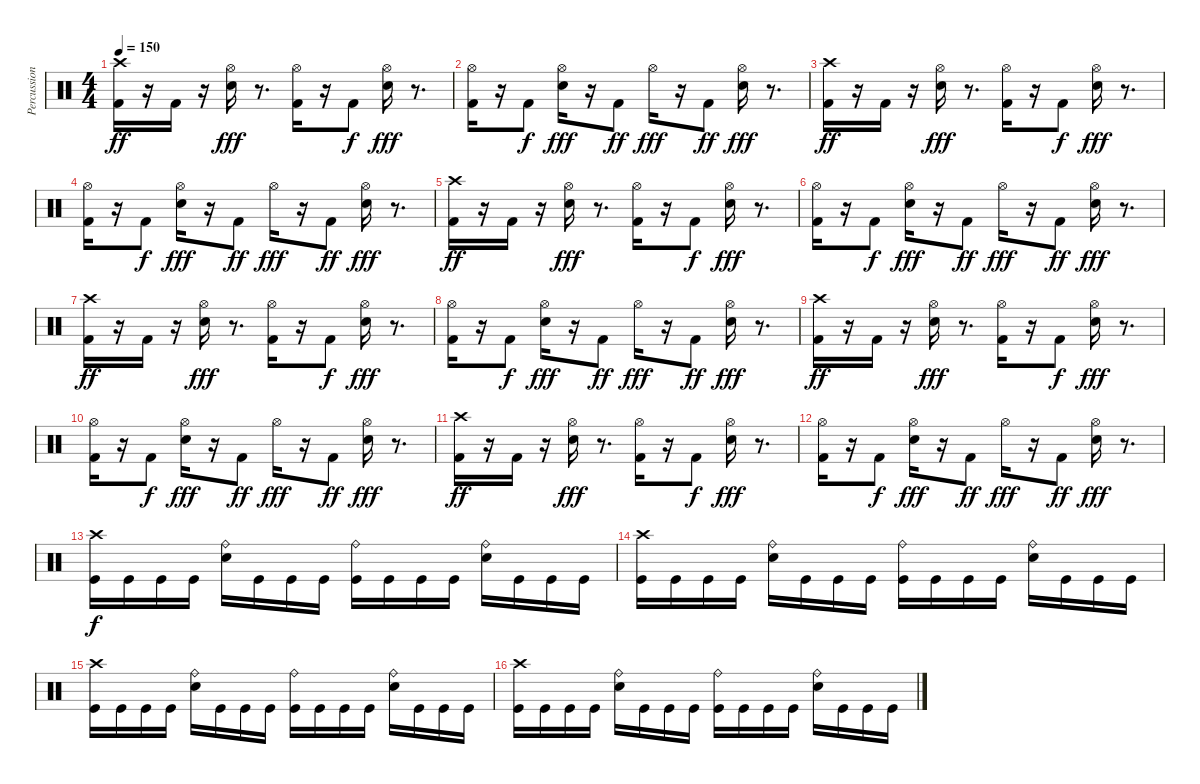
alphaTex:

\track ("Percussions" "Percussion") {instrument percussion}
\staff {score}
\articulation defaults
\ts (4 4)
\tempo 150
\clef neutral
\ks c
("Crash high (hit)" "Kick (hit) 2").16{dy ff} r.16 "Kick (hit) 2".16 r.16 ("Hi-Hat (open)" "Snare (hit) 2").16{dy fff} r.8{d} ("Kick (hit) 2" "Hi-Hat (open)").16 r.16 "Kick (hit) 2".8{dy f} ("Snare (hit) 2" "Hi-Hat (open)").16{dy fff} r.8{d} |
("Kick (hit) 2" "Hi-Hat (open)").16 r.16 "Kick (hit) 2".8{dy f} ("Snare (hit) 2" "Hi-Hat (open)").16{dy fff} r.16 "Kick (hit) 2".8{dy ff} "Hi-Hat (open)".16{dy fff} r.16 "Kick (hit) 2".8{dy ff} ("Snare (hit) 2" "Hi-Hat (open)").16{dy fff} r.8{d} |
("Crash high (hit)" "Kick (hit) 2").16{dy ff} r.16 "Kick (hit) 2".16 r.16 ("Hi-Hat (open)" "Snare (hit) 2").16{dy fff} r.8{d} ("Kick (hit) 2" "Hi-Hat (open)").16 r.16 "Kick (hit) 2".8{dy f} ("Snare (hit) 2" "Hi-Hat (open)").16{dy fff} r.8{d} |
("Kick (hit) 2" "Hi-Hat (open)").16 r.16 "Kick (hit) 2".8{dy f} ("Snare (hit) 2" "Hi-Hat (open)").16{dy fff} r.16 "Kick (hit) 2".8{dy ff} "Hi-Hat (open)".16{dy fff} r.16 "Kick (hit) 2".8{dy ff} ("Snare (hit) 2" "Hi-Hat (open)").16{dy fff} r.8{d} |
("Crash high (hit)" "Kick (hit) 2").16{dy ff} r.16 "Kick (hit) 2".16 r.16 ("Hi-Hat (open)" "Snare (hit) 2").16{dy fff} r.8{d} ("Kick (hit) 2" "Hi-Hat (open)").16 r.16 "Kick (hit) 2".8{dy f} ("Snare (hit) 2" "Hi-Hat (open)").16{dy fff} r.8{d} |
("Kick (hit) 2" "Hi-Hat (open)").16 r.16 "Kick (hit) 2".8{dy f} ("Snare (hit) 2" "Hi-Hat (open)").16{dy fff} r.16 "Kick (hit) 2".8{dy ff} "Hi-Hat (open)".16{dy fff} r.16 "Kick (hit) 2".8{dy ff} ("Snare (hit) 2" "Hi-Hat (open)").16{dy fff} r.8{d} |
("Crash high (hit)" "Kick (hit) 2").16{dy ff} r.16 "Kick (hit) 2".16 r.16 ("Hi-Hat (open)" "Snare (hit) 2").16{dy fff} r.8{d} ("Kick (hit) 2" "Hi-Hat (open)").16 r.16 "Kick (hit) 2".8{dy f} ("Snare (hit) 2" "Hi-Hat (open)").16{dy fff} r.8{d} |
("Kick (hit) 2" "Hi-Hat (open)").16 r.16 "Kick (hit) 2".8{dy f} ("Snare (hit) 2" "Hi-Hat (open)").16{dy fff} r.16 "Kick (hit) 2".8{dy ff} "Hi-Hat (open)".16{dy fff} r.16 "Kick (hit) 2".8{dy ff} ("Snare (hit) 2" "Hi-Hat (open)").16{dy fff} r.8{d} |
("Crash high (hit)" "Kick (hit) 2").16{dy ff} r.16 "Kick (hit) 2".16 r.16 ("Hi-Hat (open)" "Snare (hit) 2").16{dy fff} r.8{d} ("Kick (hit) 2" "Hi-Hat (open)").16 r.16 "Kick (hit) 2".8{dy f} ("Snare (hit) 2" "Hi-Hat (open)").16{dy fff} r.8{d} |
("Kick (hit) 2" "Hi-Hat (open)").16 r.16 "Kick (hit) 2".8{dy f} ("Snare (hit) 2" "Hi-Hat (open)").16{dy fff} r.16 "Kick (hit) 2".8{dy ff} "Hi-Hat (open)".16{dy fff} r.16 "Kick (hit) 2".8{dy ff} ("Snare (hit) 2" "Hi-Hat (open)").16{dy fff} r.8{d} |
("Crash high (hit)" "Kick (hit) 2").16{dy ff} r.16 "Kick (hit) 2".16 r.16 ("Hi-Hat (open)" "Snare (hit) 2").16{dy fff} r.8{d} ("Kick (hit) 2" "Hi-Hat (open)").16 r.16 "Kick (hit) 2".8{dy f} ("Snare (hit) 2" "Hi-Hat (open)").16{dy fff} r.8{d} |
("Kick (hit) 2" "Hi-Hat (open)").16 r.16 "Kick (hit) 2".8{dy f} ("Snare (hit) 2" "Hi-Hat (open)").16{dy fff} r.16 "Kick (hit) 2".8{dy ff} "Hi-Hat (open)".16{dy fff} r.16 "Kick (hit) 2".8{dy ff} ("Snare (hit) 2" "Hi-Hat (open)").16{dy fff} r.8{d} |
("Kick (hit)" "Crash high (hit)").16{dy f} "Kick (hit)".16 "Kick (hit)".16 "Kick (hit)".16 ("Electric Snare (hit)" "Ride (bell)").16 "Kick (hit)".16 "Kick (hit)".16 "Kick (hit)".16 ("Kick (hit)" "Ride (bell)").16 "Kick (hit)".16 "Kick (hit)".16 "Kick (hit)".16 ("Electric Snare (hit)" "Ride (bell)").16 "Kick (hit)".16 "Kick (hit)".16 "Kick (hit)".16 |
("Kick (hit)" "Crash high (hit)").16 "Kick (hit)".16 "Kick (hit)".16 "Kick (hit)".16 ("Electric Snare (hit)" "Ride (bell)").16 "Kick (hit)".16 "Kick (hit)".16 "Kick (hit)".16 ("Kick (hit)" "Ride (bell)").16 "Kick (hit)".16 "Kick (hit)".16 "Kick (hit)".16 ("Electric Snare (hit)" "Ride (bell)").16 "Kick (hit)".16 "Kick (hit)".16 "Kick (hit)".16 |
("Kick (hit)" "Crash high (hit)").16 "Kick (hit)".16 "Kick (hit)".16 "Kick (hit)".16 ("Electric Snare (hit)" "Ride (bell)").16 "Kick (hit)".16 "Kick (hit)".16 "Kick (hit)".16 ("Kick (hit)" "Ride (bell)").16 "Kick (hit)".16 "Kick (hit)".16 "Kick (hit)".16 ("Electric Snare (hit)" "Ride (bell)").16 "Kick (hit)".16 "Kick (hit)".16 "Kick (hit)".16 |
("Kick (hit)" "Crash high (hit)").16 "Kick (hit)".16 "Kick (hit)".16 "Kick (hit)".16 ("Electric Snare (hit)" "Ride (bell)").16 "Kick (hit)".16 "Kick (hit)".16 "Kick (hit)".16 ("Kick (hit)" "Ride (bell)").16 "Kick (hit)".16 "Kick (hit)".16 "Kick (hit)".16 ("Electric Snare (hit)" "Ride (bell)").16 "Kick (hit)".16 "Kick (hit)".16 "Kick (hit)".16
